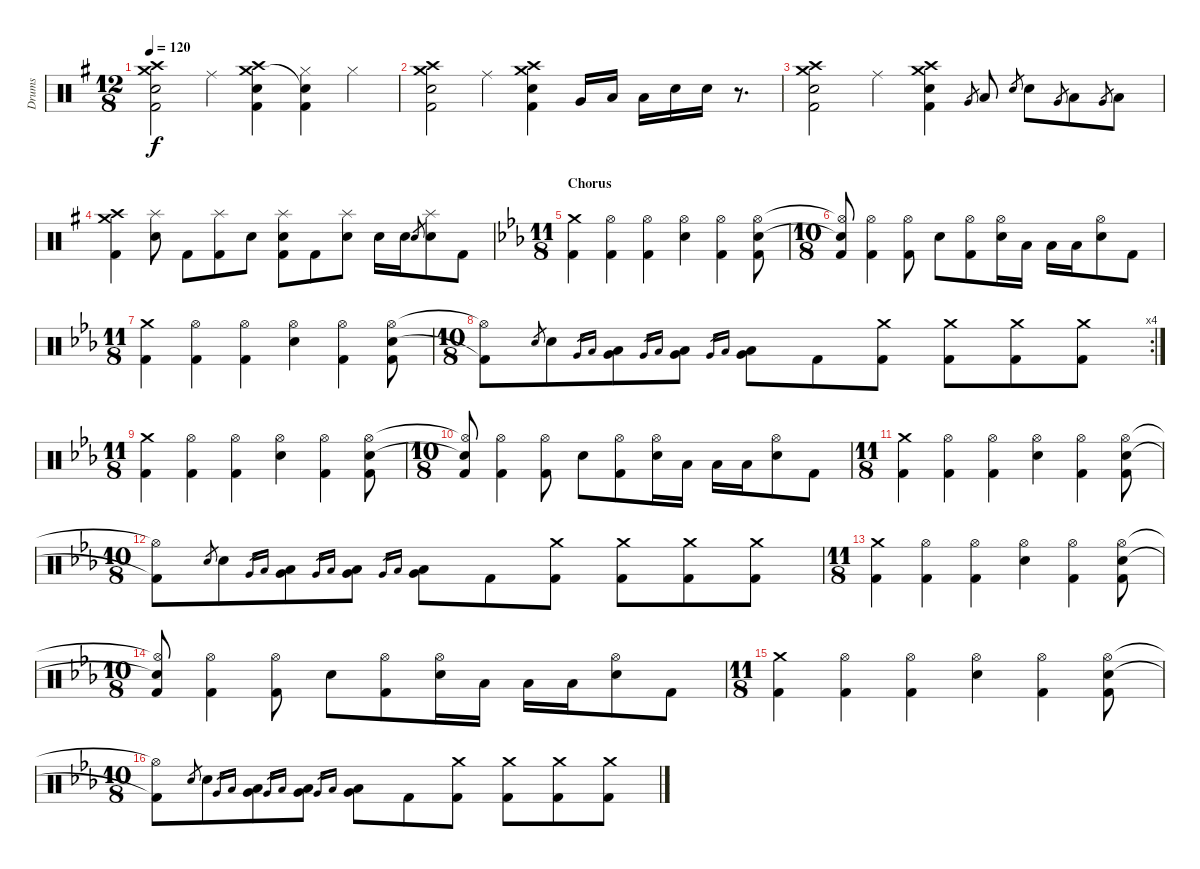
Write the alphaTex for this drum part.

\track ("Drums" "Drums") {instrument percussion}
\staff {score}
\articulation defaults
\ts (12 8)
\tempo 120
\clef neutral
\ks g
("Crash high (hit)" "Crash medium (hit)" "Electric Snare (hit)" "Kick (hit) 2").2{dy f} "Ride (middle)".4 ("Crash high (hit)" "Crash medium (hit)" "Electric Snare (hit)" "Kick (hit) 2").4 ("Hi-Hat (closed)" "Electric Snare (hit)"{t} "Kick (hit) 2").4 "Hi-Hat (closed)".4 |
("Crash high (hit)" "Crash medium (hit)" "Electric Snare (hit)" "Kick (hit) 2").2 "Ride (middle)".4 ("Crash high (hit)" "Crash medium (hit)" "Electric Snare (hit)" "Kick (hit) 2").4 "Very Low Tom (hit)".16 "Low Tom (hit)".16 "Low Tom (hit)".16 "Electric Snare (hit)".16 "Electric Snare (hit)".16 r.8{d} |
("Crash high (hit)" "Crash medium (hit)" "Electric Snare (hit)" "Kick (hit) 2").2 "Ride (middle)".4 ("Crash high (hit)" "Crash medium (hit)" "Electric Snare (hit)" "Kick (hit) 2").4 "Very Low Tom (hit)".8{gr} "Low Tom (hit)".8 "Electric Snare (hit)".8{gr} "Electric Snare (hit)".8 "Very Low Tom (hit)".8{gr} "Low Tom (hit)".8 "Very Low Tom (hit)".8{gr} "Low Tom (hit)".8 |
("Crash medium (hit)" "Crash high (hit)" "Kick (hit) 2").4 ("Splash (hit)" "Electric Snare (hit)").8 "Kick (hit) 2".8 ("Splash (hit)" "Kick (hit) 2").8 "Electric Snare (hit)".8 ("Splash (hit)" "Electric Snare (hit)" "Kick (hit) 2").8 "Kick (hit) 2".8 ("Splash (hit)" "Electric Snare (hit)").8 "Electric Snare (hit)".16 "Electric Snare (hit)".16 "Electric Snare (hit)".8{gr} ("Splash (hit)" "Electric Snare (hit)").8 "Kick (hit) 2".8 |
\ts (11 8)
\section ("" "Chorus")
\ks eb
("Crash medium (hit)" "Kick (hit) 2").4 ("Hi-Hat (open)" "Kick (hit) 2").4 ("Hi-Hat (open)" "Kick (hit) 2").4 ("Hi-Hat (open)" "Electric Snare (hit)").4 ("Hi-Hat (open)" "Kick (hit) 2").4 ("Hi-Hat (open)" "Electric Snare (hit)" "Kick (hit) 2").8 |
\ts (10 8)
("Hi-Hat (open)"{t} "Snare (hit)"{t} "Kick (hit) 2").8 ("Hi-Hat (open)" "Kick (hit) 2").4 ("Hi-Hat (open)" "Kick (hit) 2").8 "Electric Snare (hit)".8 ("Hi-Hat (open)" "Kick (hit) 2").8 ("Hi-Hat (open)" "Electric Snare (hit)").16 "Low Tom (hit)".16 "Low Tom (hit)".16 "Low Tom (hit)".16 ("Hi-Hat (open)" "Electric Snare (hit)").8 "Kick (hit) 2".8 |
\ts (11 8)
("Crash medium (hit)" "Kick (hit) 2").4 ("Hi-Hat (open)" "Kick (hit) 2").4 ("Hi-Hat (open)" "Kick (hit) 2").4 ("Hi-Hat (open)" "Electric Snare (hit)").4 ("Hi-Hat (open)" "Kick (hit) 2").4 ("Hi-Hat (open)" "Electric Snare (hit)" "Kick (hit) 2").8 |
\rc 4
\ts (10 8)
("Hi-Hat (open)"{t} "Kick (hit) 2"{t}).8 "Electric Snare (hit)".8{gr} "Electric Snare (hit)".8 "Very Low Tom (hit)".16{gr} "Low Tom (hit)".16{gr} ("Low Tom (hit)" "Very Low Tom (hit)").8 "Very Low Tom (hit)".16{gr} "Low Tom (hit)".16{gr} ("Low Tom (hit)" "Very Low Tom (hit)").8 "Very Low Tom (hit)".16{gr} "Low Tom (hit)".16{gr} ("Low Tom (hit)" "Very Low Tom (hit)").8 "Kick (hit) 2".8 ("Crash medium (hit)" "Kick (hit) 2").8 ("Crash medium (hit)" "Kick (hit) 2").8 ("Crash medium (hit)" "Kick (hit) 2").8 ("Crash medium (hit)" "Kick (hit) 2").8 |
\ts (11 8)
("Crash medium (hit)" "Kick (hit) 2").4 ("Hi-Hat (open)" "Kick (hit) 2").4 ("Hi-Hat (open)" "Kick (hit) 2").4 ("Hi-Hat (open)" "Electric Snare (hit)").4 ("Hi-Hat (open)" "Kick (hit) 2").4 ("Hi-Hat (open)" "Electric Snare (hit)" "Kick (hit) 2").8 |
\ts (10 8)
("Hi-Hat (open)"{t} "Snare (hit)"{t} "Kick (hit) 2").8 ("Hi-Hat (open)" "Kick (hit) 2").4 ("Hi-Hat (open)" "Kick (hit) 2").8 "Electric Snare (hit)".8 ("Hi-Hat (open)" "Kick (hit) 2").8 ("Hi-Hat (open)" "Electric Snare (hit)").16 "Low Tom (hit)".16 "Low Tom (hit)".16 "Low Tom (hit)".16 ("Hi-Hat (open)" "Electric Snare (hit)").8 "Kick (hit) 2".8 |
\ts (11 8)
("Crash medium (hit)" "Kick (hit) 2").4 ("Hi-Hat (open)" "Kick (hit) 2").4 ("Hi-Hat (open)" "Kick (hit) 2").4 ("Hi-Hat (open)" "Electric Snare (hit)").4 ("Hi-Hat (open)" "Kick (hit) 2").4 ("Hi-Hat (open)" "Electric Snare (hit)" "Kick (hit) 2").8 |
\ts (10 8)
("Hi-Hat (open)"{t} "Kick (hit) 2"{t}).8 "Electric Snare (hit)".8{gr} "Electric Snare (hit)".8 "Very Low Tom (hit)".16{gr} "Low Tom (hit)".16{gr} ("Low Tom (hit)" "Very Low Tom (hit)").8 "Very Low Tom (hit)".16{gr} "Low Tom (hit)".16{gr} ("Low Tom (hit)" "Very Low Tom (hit)").8 "Very Low Tom (hit)".16{gr} "Low Tom (hit)".16{gr} ("Low Tom (hit)" "Very Low Tom (hit)").8 "Kick (hit) 2".8 ("Crash medium (hit)" "Kick (hit) 2").8 ("Crash medium (hit)" "Kick (hit) 2").8 ("Crash medium (hit)" "Kick (hit) 2").8 ("Crash medium (hit)" "Kick (hit) 2").8 |
\ts (11 8)
("Crash medium (hit)" "Kick (hit) 2").4 ("Hi-Hat (open)" "Kick (hit) 2").4 ("Hi-Hat (open)" "Kick (hit) 2").4 ("Hi-Hat (open)" "Electric Snare (hit)").4 ("Hi-Hat (open)" "Kick (hit) 2").4 ("Hi-Hat (open)" "Electric Snare (hit)" "Kick (hit) 2").8 |
\ts (10 8)
("Hi-Hat (open)"{t} "Snare (hit)"{t} "Kick (hit) 2").8 ("Hi-Hat (open)" "Kick (hit) 2").4 ("Hi-Hat (open)" "Kick (hit) 2").8 "Electric Snare (hit)".8 ("Hi-Hat (open)" "Kick (hit) 2").8 ("Hi-Hat (open)" "Electric Snare (hit)").16 "Low Tom (hit)".16 "Low Tom (hit)".16 "Low Tom (hit)".16 ("Hi-Hat (open)" "Electric Snare (hit)").8 "Kick (hit) 2".8 |
\ts (11 8)
("Crash medium (hit)" "Kick (hit) 2").4 ("Hi-Hat (open)" "Kick (hit) 2").4 ("Hi-Hat (open)" "Kick (hit) 2").4 ("Hi-Hat (open)" "Electric Snare (hit)").4 ("Hi-Hat (open)" "Kick (hit) 2").4 ("Hi-Hat (open)" "Electric Snare (hit)" "Kick (hit) 2").8 |
\ts (10 8)
("Hi-Hat (open)"{t} "Kick (hit) 2"{t}).8 "Electric Snare (hit)".8{gr} "Electric Snare (hit)".8 "Very Low Tom (hit)".16{gr} "Low Tom (hit)".16{gr} ("Low Tom (hit)" "Very Low Tom (hit)").8 "Very Low Tom (hit)".16{gr} "Low Tom (hit)".16{gr} ("Low Tom (hit)" "Very Low Tom (hit)").8 "Very Low Tom (hit)".16{gr} "Low Tom (hit)".16{gr} ("Low Tom (hit)" "Very Low Tom (hit)").8 "Kick (hit) 2".8 ("Crash medium (hit)" "Kick (hit) 2").8 ("Crash medium (hit)" "Kick (hit) 2").8 ("Crash medium (hit)" "Kick (hit) 2").8 ("Crash medium (hit)" "Kick (hit) 2").8
